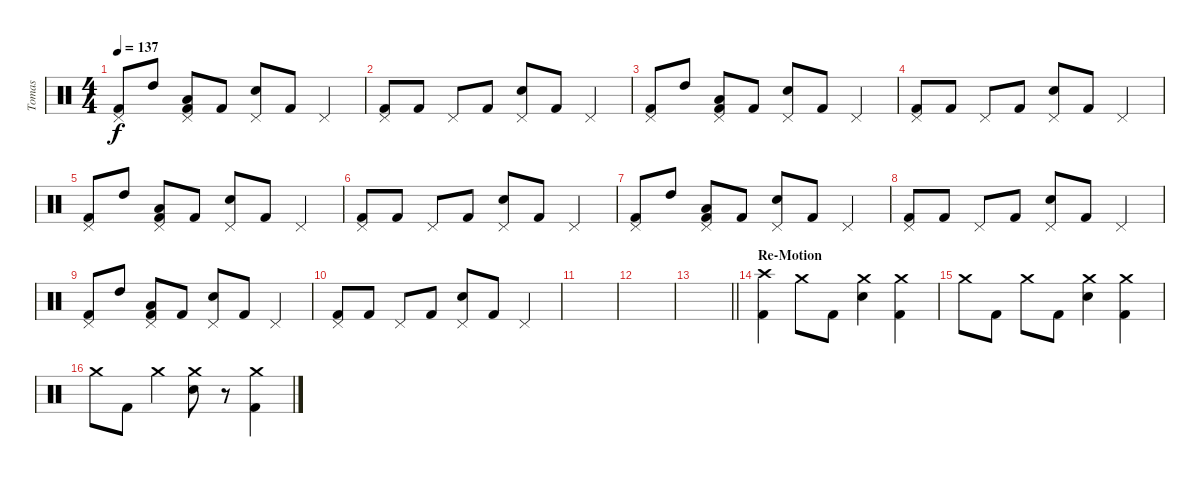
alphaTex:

\track ("Tomas" "Tomas") {instrument percussion}
\staff {score}
\articulation defaults
\ts (4 4)
\tempo 137
\clef neutral
\ks c
("Pedal Hi-Hat (hit)" "Kick (hit) 2").8{dy f} "High Tom (hit)".8 ("Pedal Hi-Hat (hit)" "Low Tom (hit)" "Kick (hit) 2").8 "Kick (hit) 2".8 ("Pedal Hi-Hat (hit)" "Electric Snare (hit)").8 "Kick (hit) 2".8 "Pedal Hi-Hat (hit)".4 |
("Pedal Hi-Hat (hit)" "Kick (hit) 2").8 "Kick (hit) 2".8 "Pedal Hi-Hat (hit)".8 "Kick (hit) 2".8 ("Pedal Hi-Hat (hit)" "Electric Snare (hit)").8 "Kick (hit) 2".8 "Pedal Hi-Hat (hit)".4 |
("Pedal Hi-Hat (hit)" "Kick (hit) 2").8 "High Tom (hit)".8 ("Pedal Hi-Hat (hit)" "Low Tom (hit)" "Kick (hit) 2").8 "Kick (hit) 2".8 ("Pedal Hi-Hat (hit)" "Electric Snare (hit)").8 "Kick (hit) 2".8 "Pedal Hi-Hat (hit)".4 |
("Pedal Hi-Hat (hit)" "Kick (hit) 2").8 "Kick (hit) 2".8 "Pedal Hi-Hat (hit)".8 "Kick (hit) 2".8 ("Pedal Hi-Hat (hit)" "Electric Snare (hit)").8 "Kick (hit) 2".8 "Pedal Hi-Hat (hit)".4 |
("Pedal Hi-Hat (hit)" "Kick (hit) 2").8 "High Tom (hit)".8 ("Pedal Hi-Hat (hit)" "Low Tom (hit)" "Kick (hit) 2").8 "Kick (hit) 2".8 ("Pedal Hi-Hat (hit)" "Electric Snare (hit)").8 "Kick (hit) 2".8 "Pedal Hi-Hat (hit)".4 |
("Pedal Hi-Hat (hit)" "Kick (hit) 2").8 "Kick (hit) 2".8 "Pedal Hi-Hat (hit)".8 "Kick (hit) 2".8 ("Pedal Hi-Hat (hit)" "Electric Snare (hit)").8 "Kick (hit) 2".8 "Pedal Hi-Hat (hit)".4 |
("Pedal Hi-Hat (hit)" "Kick (hit) 2").8 "High Tom (hit)".8 ("Pedal Hi-Hat (hit)" "Low Tom (hit)" "Kick (hit) 2").8 "Kick (hit) 2".8 ("Pedal Hi-Hat (hit)" "Electric Snare (hit)").8 "Kick (hit) 2".8 "Pedal Hi-Hat (hit)".4 |
("Pedal Hi-Hat (hit)" "Kick (hit) 2").8 "Kick (hit) 2".8 "Pedal Hi-Hat (hit)".8 "Kick (hit) 2".8 ("Pedal Hi-Hat (hit)" "Electric Snare (hit)").8 "Kick (hit) 2".8 "Pedal Hi-Hat (hit)".4 |
("Pedal Hi-Hat (hit)" "Kick (hit) 2").8 "High Tom (hit)".8 ("Pedal Hi-Hat (hit)" "Low Tom (hit)" "Kick (hit) 2").8 "Kick (hit) 2".8 ("Pedal Hi-Hat (hit)" "Electric Snare (hit)").8 "Kick (hit) 2".8 "Pedal Hi-Hat (hit)".4 |
("Pedal Hi-Hat (hit)" "Kick (hit) 2").8 "Kick (hit) 2".8 "Pedal Hi-Hat (hit)".8 "Kick (hit) 2".8 ("Pedal Hi-Hat (hit)" "Electric Snare (hit)").8 "Kick (hit) 2".8 "Pedal Hi-Hat (hit)".4 |
|
|
\barLineRight lightlight
|
\section ("" "Re-Motion")
("Crash high (hit)" "Kick (hit) 2").4 "Crash medium (hit)".8 "Kick (hit) 2".8 ("Crash medium (hit)" "Electric Snare (hit)").4 ("Crash medium (hit)" "Kick (hit) 2").4 |
"Crash medium (hit)".8 "Kick (hit) 2".8 "Crash medium (hit)".8 "Kick (hit) 2".8 ("Crash medium (hit)" "Electric Snare (hit)").4 ("Crash medium (hit)" "Kick (hit) 2").4 |
"Crash medium (hit)".8 "Kick (hit) 2".8 "Crash medium (hit)".4 ("Crash medium (hit)" "Electric Snare (hit)").8 r.8 ("Crash medium (hit)" "Kick (hit) 2").4
